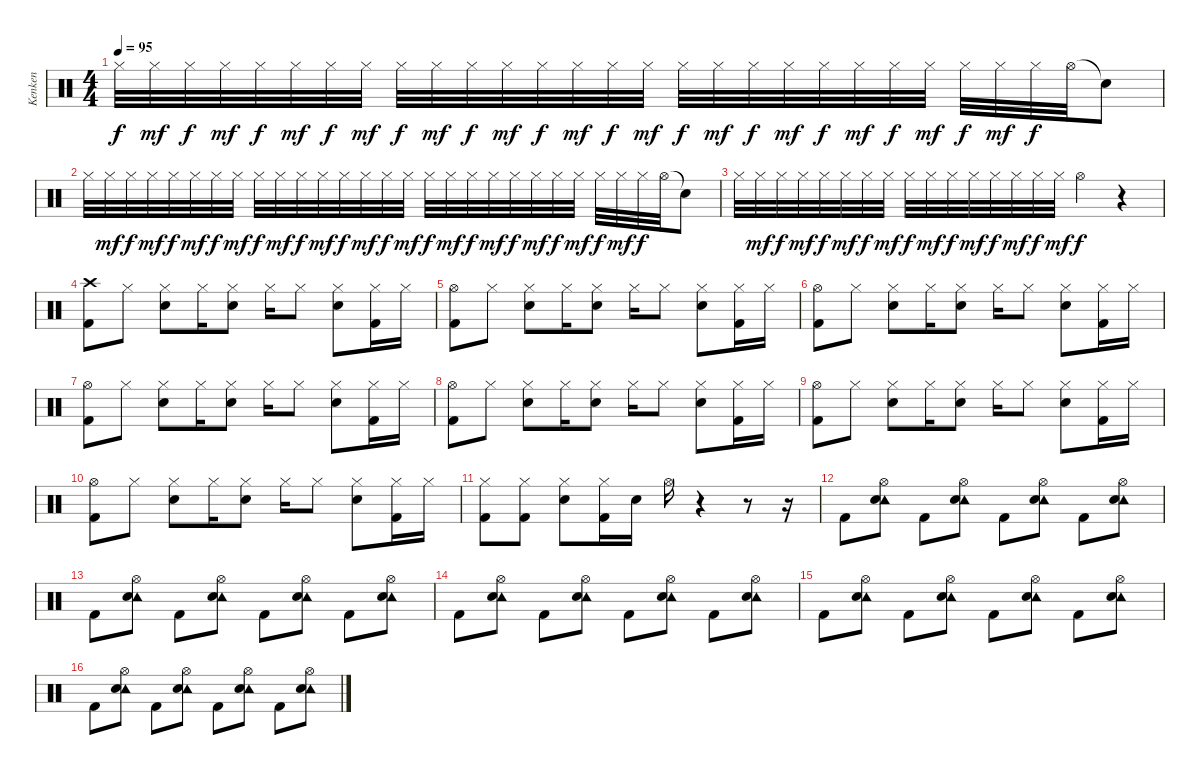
\track ("Kenken" "Kenken") {instrument percussion}
\staff {score}
\articulation defaults
\ts (4 4)
\tempo 95
\clef neutral
\ks c "Hi-Hat (closed)".32{dy f} "Hi-Hat (closed)".32{dy mf} "Hi-Hat (closed)".32{dy f} "Hi-Hat (closed)".32{dy mf} "Hi-Hat (closed)".32{dy f} "Hi-Hat (closed)".32{dy mf} "Hi-Hat (closed)".32{dy f} "Hi-Hat (closed)".32{dy mf} "Hi-Hat (closed)".32{dy f} "Hi-Hat (closed)".32{dy mf} "Hi-Hat (closed)".32{dy f} "Hi-Hat (closed)".32{dy mf} "Hi-Hat (closed)".32{dy f} "Hi-Hat (closed)".32{dy mf} "Hi-Hat (closed)".32{dy f} "Hi-Hat (closed)".32{dy mf} "Hi-Hat (closed)".32{dy f} "Hi-Hat (closed)".32{dy mf} "Hi-Hat (closed)".32{dy f} "Hi-Hat (closed)".32{dy mf} "Hi-Hat (closed)".32{dy f} "Hi-Hat (closed)".32{dy mf} "Hi-Hat (closed)".32{dy f} "Hi-Hat (closed)".32{dy mf} "Hi-Hat (closed)".32{dy f} "Hi-Hat (closed)".32{dy mf} "Hi-Hat (closed)".32{dy f} "Hi-Hat (open)".32 "Snare (hit)"{t}.8
|
"Hi-Hat (closed)".32 "Hi-Hat (closed)".32{dy mf} "Hi-Hat (closed)".32{dy f} "Hi-Hat (closed)".32{dy mf} "Hi-Hat (closed)".32{dy f} "Hi-Hat (closed)".32{dy mf} "Hi-Hat (closed)".32{dy f} "Hi-Hat (closed)".32{dy mf} "Hi-Hat (closed)".32{dy f} "Hi-Hat (closed)".32{dy mf} "Hi-Hat (closed)".32{dy f} "Hi-Hat (closed)".32{dy mf} "Hi-Hat (closed)".32{dy f} "Hi-Hat (closed)".32{dy mf} "Hi-Hat (closed)".32{dy f} "Hi-Hat (closed)".32{dy mf} "Hi-Hat (closed)".32{dy f} "Hi-Hat (closed)".32{dy mf} "Hi-Hat (closed)".32{dy f} "Hi-Hat (closed)".32{dy mf} "Hi-Hat (closed)".32{dy f} "Hi-Hat (closed)".32{dy mf} "Hi-Hat (closed)".32{dy f} "Hi-Hat (closed)".32{dy mf} "Hi-Hat (closed)".32{dy f} "Hi-Hat (closed)".32{dy mf} "Hi-Hat (closed)".32{dy f} "Hi-Hat (open)".32 "Snare (hit)"{t}.8 |
"Hi-Hat (closed)".32 "Hi-Hat (closed)".32{dy mf} "Hi-Hat (closed)".32{dy f} "Hi-Hat (closed)".32{dy mf} "Hi-Hat (closed)".32{dy f} "Hi-Hat (closed)".32{dy mf} "Hi-Hat (closed)".32{dy f} "Hi-Hat (closed)".32{dy mf} "Hi-Hat (closed)".32{dy f} "Hi-Hat (closed)".32{dy mf} "Hi-Hat (closed)".32{dy f} "Hi-Hat (closed)".32{dy mf} "Hi-Hat (closed)".32{dy f} "Hi-Hat (closed)".32{dy mf} "Hi-Hat (closed)".32{dy f} "Hi-Hat (closed)".32{dy mf} "Hi-Hat (open)".4{dy f} r.4 |
("Crash high (hit)" "Kick (hit) 2").8 "Hi-Hat (closed)".8 ("Hi-Hat (closed)" "Snare (hit) 2").8 "Hi-Hat (closed)".16 ("Hi-Hat (closed)" "Snare (hit) 2").8 "Hi-Hat (closed)".16 "Hi-Hat (closed)".8 ("Hi-Hat (closed)" "Snare (hit) 2").8 ("Hi-Hat (closed)" "Kick (hit) 2").16 "Hi-Hat (closed)".16 |
("Hi-Hat (open)" "Kick (hit) 2").8 "Hi-Hat (closed)".8 ("Hi-Hat (closed)" "Snare (hit) 2").8 "Hi-Hat (closed)".16 ("Hi-Hat (closed)" "Snare (hit) 2").8 "Hi-Hat (closed)".16 "Hi-Hat (closed)".8 ("Hi-Hat (closed)" "Snare (hit) 2").8 ("Hi-Hat (closed)" "Kick (hit) 2").16 "Hi-Hat (closed)".16 |
("Hi-Hat (open)" "Kick (hit) 2").8 "Hi-Hat (closed)".8 ("Hi-Hat (closed)" "Snare (hit) 2").8 "Hi-Hat (closed)".16 ("Hi-Hat (closed)" "Snare (hit) 2").8 "Hi-Hat (closed)".16 "Hi-Hat (closed)".8 ("Hi-Hat (closed)" "Snare (hit) 2").8 ("Hi-Hat (closed)" "Kick (hit) 2").16 "Hi-Hat (closed)".16 |
("Hi-Hat (open)" "Kick (hit) 2").8 "Hi-Hat (closed)".8 ("Hi-Hat (closed)" "Snare (hit) 2").8 "Hi-Hat (closed)".16 ("Hi-Hat (closed)" "Snare (hit) 2").8 "Hi-Hat (closed)".16 "Hi-Hat (closed)".8 ("Hi-Hat (closed)" "Snare (hit) 2").8 ("Hi-Hat (closed)" "Kick (hit) 2").16 "Hi-Hat (closed)".16 |
("Hi-Hat (open)" "Kick (hit) 2").8 "Hi-Hat (closed)".8 ("Hi-Hat (closed)" "Snare (hit) 2").8 "Hi-Hat (closed)".16 ("Hi-Hat (closed)" "Snare (hit) 2").8 "Hi-Hat (closed)".16 "Hi-Hat (closed)".8 ("Hi-Hat (closed)" "Snare (hit) 2").8 ("Hi-Hat (closed)" "Kick (hit) 2").16 "Hi-Hat (closed)".16 |
("Hi-Hat (open)" "Kick (hit) 2").8 "Hi-Hat (closed)".8 ("Hi-Hat (closed)" "Snare (hit) 2").8 "Hi-Hat (closed)".16 ("Hi-Hat (closed)" "Snare (hit) 2").8 "Hi-Hat (closed)".16 "Hi-Hat (closed)".8 ("Hi-Hat (closed)" "Snare (hit) 2").8 ("Hi-Hat (closed)" "Kick (hit) 2").16 "Hi-Hat (closed)".16 |
("Hi-Hat (open)" "Kick (hit) 2").8 "Hi-Hat (closed)".8 ("Hi-Hat (closed)" "Snare (hit) 2").8 "Hi-Hat (closed)".16 ("Hi-Hat (closed)" "Snare (hit) 2").8 "Hi-Hat (closed)".16 "Hi-Hat (closed)".8 ("Hi-Hat (closed)" "Snare (hit) 2").8 ("Hi-Hat (closed)" "Kick (hit) 2").16 "Hi-Hat (closed)".16 |
("Hi-Hat (closed)" "Kick (hit) 2").8 ("Hi-Hat (closed)" "Kick (hit) 2").8 ("Hi-Hat (closed)" "Snare (hit) 2").8 ("Hi-Hat (closed)" "Kick (hit) 2").16 "Snare (hit) 2".16 "Hi-Hat (open)".16 r.4 r.8 r.16 |
"Kick (hit) 2".8 ("Hi-Hat (open)" "Tambourine (hit)" "Snare (hit) 2").8 "Kick (hit) 2".8 ("Hi-Hat (open)" "Tambourine (hit)" "Snare (hit) 2").8 "Kick (hit) 2".8 ("Hi-Hat (open)" "Tambourine (hit)" "Snare (hit) 2").8 "Kick (hit) 2".8 ("Hi-Hat (open)" "Tambourine (hit)" "Snare (hit) 2").8 |
"Kick (hit) 2".8 ("Hi-Hat (open)" "Tambourine (hit)" "Snare (hit) 2").8 "Kick (hit) 2".8 ("Hi-Hat (open)" "Tambourine (hit)" "Snare (hit) 2").8 "Kick (hit) 2".8 ("Hi-Hat (open)" "Tambourine (hit)" "Snare (hit) 2").8 "Kick (hit) 2".8 ("Hi-Hat (open)" "Tambourine (hit)" "Snare (hit) 2").8 |
"Kick (hit) 2".8 ("Hi-Hat (open)" "Tambourine (hit)" "Snare (hit) 2").8 "Kick (hit) 2".8 ("Hi-Hat (open)" "Tambourine (hit)" "Snare (hit) 2").8 "Kick (hit) 2".8 ("Hi-Hat (open)" "Tambourine (hit)" "Snare (hit) 2").8 "Kick (hit) 2".8 ("Hi-Hat (open)" "Tambourine (hit)" "Snare (hit) 2").8 |
"Kick (hit) 2".8 ("Hi-Hat (open)" "Tambourine (hit)" "Snare (hit) 2").8 "Kick (hit) 2".8 ("Hi-Hat (open)" "Tambourine (hit)" "Snare (hit) 2").8 "Kick (hit) 2".8 ("Hi-Hat (open)" "Tambourine (hit)" "Snare (hit) 2").8 "Kick (hit) 2".8 ("Hi-Hat (open)" "Tambourine (hit)" "Snare (hit) 2").8 |
"Kick (hit) 2".8 ("Hi-Hat (open)" "Tambourine (hit)" "Snare (hit) 2").8 "Kick (hit) 2".8 ("Hi-Hat (open)" "Tambourine (hit)" "Snare (hit) 2").8 "Kick (hit) 2".8 ("Hi-Hat (open)" "Tambourine (hit)" "Snare (hit) 2").8 "Kick (hit) 2".8 ("Hi-Hat (open)" "Tambourine (hit)" "Snare (hit) 2").8
